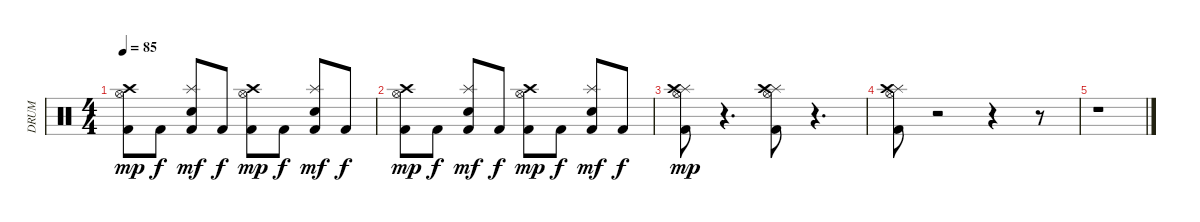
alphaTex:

\track ("DRUM" "DRUM") {instrument percussion}
\staff {score}
\articulation defaults
\ts (4 4)
\tempo 85
\clef neutral
\ks c
("Hi-Hat (open)" "Crash high (hit)" "Kick (hit) 2").8{dy mp} "Kick (hit) 2".8{dy f} ("Splash (hit)" "Electric Snare (hit)" "Kick (hit) 2").8{dy mf} "Kick (hit) 2".8{dy f} ("Hi-Hat (open)" "Crash high (hit)" "Kick (hit) 2").8{dy mp} "Kick (hit) 2".8{dy f} ("Splash (hit)" "Electric Snare (hit)" "Kick (hit) 2").8{dy mf} "Kick (hit) 2".8{dy f} |
("Hi-Hat (open)" "Crash high (hit)" "Kick (hit) 2").8{dy mp} "Kick (hit) 2".8{dy f} ("Splash (hit)" "Electric Snare (hit)" "Kick (hit) 2").8{dy mf} "Kick (hit) 2".8{dy f} ("Hi-Hat (open)" "Crash high (hit)" "Kick (hit) 2").8{dy mp} "Kick (hit) 2".8{dy f} ("Splash (hit)" "Electric Snare (hit)" "Kick (hit) 2").8{dy mf} "Kick (hit) 2".8{dy f} |
("Splash (hit)" "Hi-Hat (open)" "Crash high (hit)" "Kick (hit) 2").8{dy mp} r.4{d} ("Splash (hit)" "Hi-Hat (open)" "Crash high (hit)" "Kick (hit) 2").8 r.4{d} |
("Splash (hit)" "Hi-Hat (open)" "Crash high (hit)" "Kick (hit) 2").8 r.2 r.4 r.8 |
r.1
